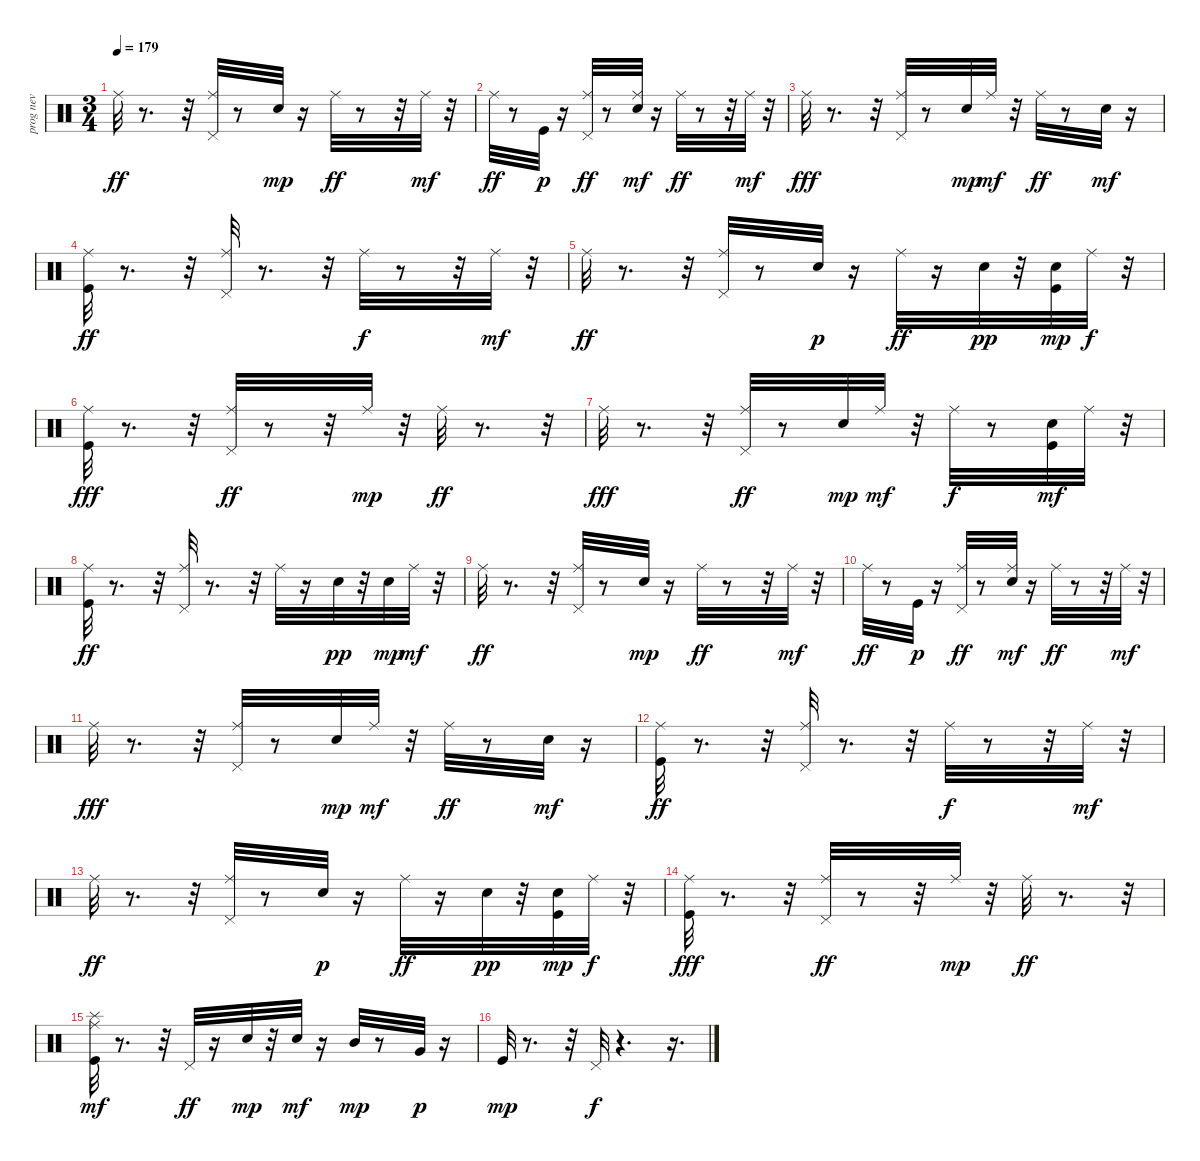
\track ("prog nev" "prog nev") {instrument percussion}
\staff {score}
\articulation defaults
\ts (3 4)
\tempo 179
\clef neutral
\ks c "Ride (middle)".32{dy ff}
r.8{d} r.32 ("Pedal Hi-Hat (hit)" "Ride (middle)").32 r.8 "Snare (hit) 2".32{dy mp} r.16 "Ride (middle)".32{dy ff} r.8 r.32 "Ride (middle)".32{dy mf} r.32 |
"Ride (middle)".32{dy ff} r.8 "Kick (hit)".32{dy p} r.16 ("Pedal Hi-Hat (hit)" "Ride (middle)").32{dy ff} r.8 ("Hand Clap (hit)" "Ride (middle)").32{dy mf} r.16 "Ride (middle)".32{dy ff} r.8 r.32 "Ride (middle)".32{dy mf} r.32 |
"Ride (middle)".32{dy fff} r.8{d} r.32 ("Pedal Hi-Hat (hit)" "Ride (middle)").32 r.8 "Snare (hit) 2".32{dy mp} "Ride (middle)".32{dy mf} r.32 "Ride (middle)".32{dy ff} r.8 "Snare (hit) 2".32{dy mf} r.16 |
("Kick (hit)" "Ride (middle)").32{dy ff} r.8{d} r.32 ("Pedal Hi-Hat (hit)" "Ride (middle)").32 r.8{d} r.32 "Ride (middle)".32{dy f} r.8 r.32 "Ride (middle)".32{dy mf} r.32 |
"Ride (middle)".32{dy ff} r.8{d} r.32 ("Pedal Hi-Hat (hit)" "Ride (middle)").32 r.8 "Hand Clap (hit)".32{dy p} r.16 "Ride (middle)".32{dy ff} r.16 "Snare (hit) 2".32{dy pp} r.32 ("Kick (hit)" "Snare (hit) 2").32{dy mp} "Ride (middle)".32{dy f} r.32 |
("Kick (hit)" "Ride (middle)").32{dy fff} r.8{d} r.32 ("Pedal Hi-Hat (hit)" "Ride (middle)").32{dy ff} r.8 r.32 "Ride (middle)".32{dy mp} r.32 "Ride (middle)".32{dy ff} r.8{d} r.32 |
"Ride (middle)".32{dy fff} r.8{d} r.32 ("Pedal Hi-Hat (hit)" "Ride (middle)").32{dy ff} r.8 "Snare (hit) 2".32{dy mp} "Ride (middle)".32{dy mf} r.32 "Ride (middle)".32{dy f} r.8 ("Kick (hit)" "Snare (hit) 2").32{dy mf} "Ride (middle)".32 r.32 |
("Kick (hit)" "Ride (middle)").32{dy ff} r.8{d} r.32 ("Pedal Hi-Hat (hit)" "Ride (middle)").32 r.8{d} r.32 "Ride (middle)".32 r.16 "Snare (hit) 2".32{dy pp} r.32 "Snare (hit) 2".32{dy mp} "Ride (middle)".32{dy mf} r.32 |
"Ride (middle)".32{dy ff} r.8{d} r.32 ("Pedal Hi-Hat (hit)" "Ride (middle)").32 r.8 "Snare (hit) 2".32{dy mp} r.16 "Ride (middle)".32{dy ff} r.8 r.32 "Ride (middle)".32{dy mf} r.32 |
"Ride (middle)".32{dy ff} r.8 "Kick (hit)".32{dy p} r.16 ("Pedal Hi-Hat (hit)" "Ride (middle)").32{dy ff} r.8 ("Hand Clap (hit)" "Ride (middle)").32{dy mf} r.16 "Ride (middle)".32{dy ff} r.8 r.32 "Ride (middle)".32{dy mf} r.32 |
"Ride (middle)".32{dy fff} r.8{d} r.32 ("Pedal Hi-Hat (hit)" "Ride (middle)").32 r.8 "Snare (hit) 2".32{dy mp} "Ride (middle)".32{dy mf} r.32 "Ride (middle)".32{dy ff} r.8 "Snare (hit) 2".32{dy mf} r.16 |
("Kick (hit)" "Ride (middle)").32{dy ff} r.8{d} r.32 ("Pedal Hi-Hat (hit)" "Ride (middle)").32 r.8{d} r.32 "Ride (middle)".32{dy f} r.8 r.32 "Ride (middle)".32{dy mf} r.32 |
"Ride (middle)".32{dy ff} r.8{d} r.32 ("Pedal Hi-Hat (hit)" "Ride (middle)").32 r.8 "Hand Clap (hit)".32{dy p} r.16 "Ride (middle)".32{dy ff} r.16 "Snare (hit) 2".32{dy pp} r.32 ("Kick (hit)" "Snare (hit) 2").32{dy mp} "Ride (middle)".32{dy f} r.32 |
("Kick (hit)" "Ride (middle)").32{dy fff} r.8{d} r.32 ("Pedal Hi-Hat (hit)" "Ride (middle)").32{dy ff} r.8 r.32 "Ride (middle)".32{dy mp} r.32 "Ride (middle)".32{dy ff} r.8{d} r.32 |
("Kick (hit)" "Ride (middle)" "Splash (hit)").32{dy mf} r.8{d} r.32 "Pedal Hi-Hat (hit)".32{dy ff} r.16 "Snare (hit) 2".32{dy mp} r.32 "Hand Clap (hit)".32{dy mf} r.16 "Mid Tom (hit)".32{dy mp} r.8 "Very Low Tom (hit)".32{dy p} r.16 |
"Kick (hit)".32{dy mp} r.8{d} r.32 "Pedal Hi-Hat (hit)".32{dy f} r.4{d} r.16{d}
